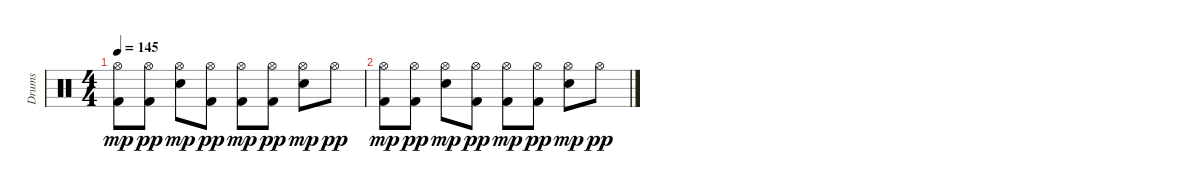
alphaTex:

\track ("Drums" "Drums") {instrument percussion}
\staff {score}
\articulation defaults
\ts (4 4)
\tempo 145
\clef neutral
\ks c
("Hi-Hat (open)" "Kick (hit) 2").8{dy mp} ("Hi-Hat (open)" "Kick (hit) 2").8{dy pp} ("Hi-Hat (open)" "Snare (hit) 2").8{dy mp} ("Hi-Hat (open)" "Kick (hit) 2").8{dy pp} ("Hi-Hat (open)" "Kick (hit) 2").8{dy mp} ("Hi-Hat (open)" "Kick (hit) 2").8{dy pp} ("Hi-Hat (open)" "Snare (hit) 2").8{dy mp} "Hi-Hat (open)".8{dy pp} |
("Hi-Hat (open)" "Kick (hit) 2").8{dy mp} ("Hi-Hat (open)" "Kick (hit) 2").8{dy pp} ("Hi-Hat (open)" "Snare (hit) 2").8{dy mp} ("Hi-Hat (open)" "Kick (hit) 2").8{dy pp} ("Hi-Hat (open)" "Kick (hit) 2").8{dy mp} ("Hi-Hat (open)" "Kick (hit) 2").8{dy pp} ("Hi-Hat (open)" "Snare (hit) 2").8{dy mp} "Hi-Hat (open)".8{dy pp}
